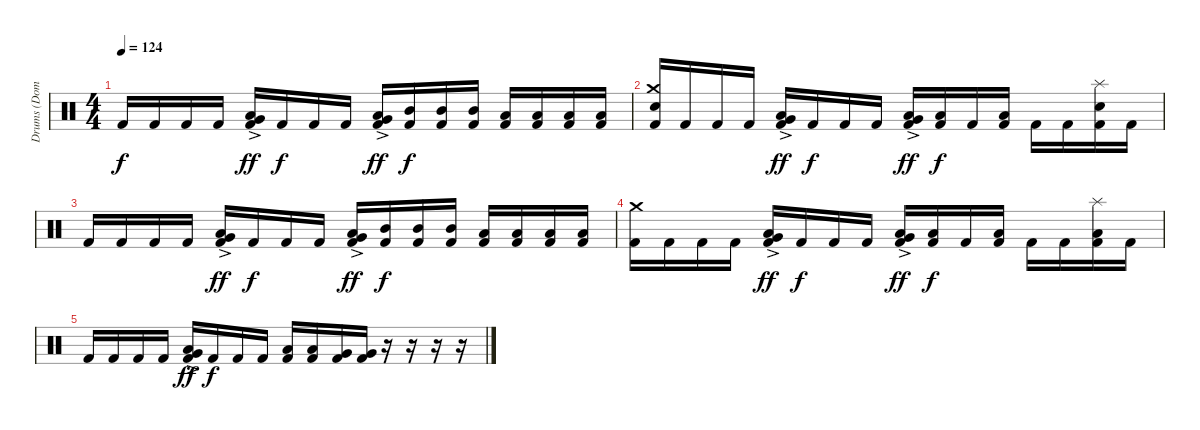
\track ("Drums (Dominik)" "Drums (Dom") {instrument percussion}
\staff {score}
\articulation defaults
\ts (4 4)
\tempo 124
\clef neutral
\ks c "Kick (hit) 2".16{dy f} "Kick (hit) 2".16 "Kick (hit) 2".16 "Kick (hit) 2".16
("Very Low Tom (hit)"{ac} "Low Floor Tom (hit)"{ac} "Kick (hit) 2").16{dy ff} "Kick (hit) 2".16{dy f} "Kick (hit) 2".16 "Kick (hit) 2".16 ("Very Low Tom (hit)"{ac} "Low Floor Tom (hit)"{ac} "Kick (hit) 2").16{dy ff} ("Mid Tom (hit)" "Kick (hit) 2").16{dy f} ("Mid Tom (hit)" "Kick (hit) 2").16 ("Mid Tom (hit)" "Kick (hit) 2").16 ("Low Tom (hit)" "Kick (hit) 2").16 ("Low Tom (hit)" "Kick (hit) 2").16 ("Low Tom (hit)" "Kick (hit) 2").16 ("Low Tom (hit)" "Kick (hit) 2").16 |
("Crash medium (hit)" "Electric Snare (hit)" "Kick (hit) 2").16 "Kick (hit) 2".16 "Kick (hit) 2".16 "Kick (hit) 2".16 ("Very Low Tom (hit)"{ac} "Low Floor Tom (hit)"{ac} "Kick (hit) 2").16{dy ff} "Kick (hit) 2".16{dy f} "Kick (hit) 2".16 "Kick (hit) 2".16 ("Very Low Tom (hit)"{ac} "Low Floor Tom (hit)"{ac} "Kick (hit) 2").16{dy ff} ("Low Tom (hit)" "Kick (hit) 2").16{dy f} "Kick (hit) 2".16 ("Low Floor Tom (hit)" "Kick (hit) 2").16 "Kick (hit) 2".16 "Kick (hit) 2".16 ("Splash (hit)" "Electric Snare (hit)" "Kick (hit) 2").16 "Kick (hit) 2".16 |
"Kick (hit) 2".16 "Kick (hit) 2".16 "Kick (hit) 2".16 "Kick (hit) 2".16 ("Very Low Tom (hit)"{ac} "Low Floor Tom (hit)"{ac} "Kick (hit) 2").16{dy ff} "Kick (hit) 2".16{dy f} "Kick (hit) 2".16 "Kick (hit) 2".16 ("Very Low Tom (hit)"{ac} "Low Floor Tom (hit)"{ac} "Kick (hit) 2").16{dy ff} ("Mid Tom (hit)" "Kick (hit) 2").16{dy f} ("Mid Tom (hit)" "Kick (hit) 2").16 ("Mid Tom (hit)" "Kick (hit) 2").16 ("Low Tom (hit)" "Kick (hit) 2").16 ("Low Tom (hit)" "Kick (hit) 2").16 ("Low Tom (hit)" "Kick (hit) 2").16 ("Low Tom (hit)" "Kick (hit) 2").16 |
("Crash medium (hit)" "Kick (hit) 2").16 "Kick (hit) 2".16 "Kick (hit) 2".16 "Kick (hit) 2".16 ("Very Low Tom (hit)"{ac} "Low Floor Tom (hit)"{ac} "Kick (hit) 2").16{dy ff} "Kick (hit) 2".16{dy f} "Kick (hit) 2".16 "Kick (hit) 2".16 ("Very Low Tom (hit)"{ac} "Low Floor Tom (hit)"{ac} "Kick (hit) 2").16{dy ff} ("Low Tom (hit)" "Kick (hit) 2").16{dy f} "Kick (hit) 2".16 ("Low Floor Tom (hit)" "Kick (hit) 2").16 "Kick (hit) 2".16 "Kick (hit) 2".16 ("Splash (hit)" "Low Floor Tom (hit)" "Kick (hit) 2").16 "Kick (hit) 2".16 |
"Kick (hit) 2".16 "Kick (hit) 2".16 "Kick (hit) 2".16 "Kick (hit) 2".16 ("Very Low Tom (hit)"{ac} "Low Floor Tom (hit)" "Kick (hit) 2").16{dy ff} "Kick (hit) 2".16{dy f} "Kick (hit) 2".16 "Kick (hit) 2".16 ("Low Tom (hit)" "Kick (hit) 2").16 ("Low Tom (hit)" "Kick (hit) 2").16 ("Very Low Tom (hit)" "Kick (hit) 2").16 ("Very Low Tom (hit)" "Kick (hit) 2").16 r.16 r.16 r.16 r.16
